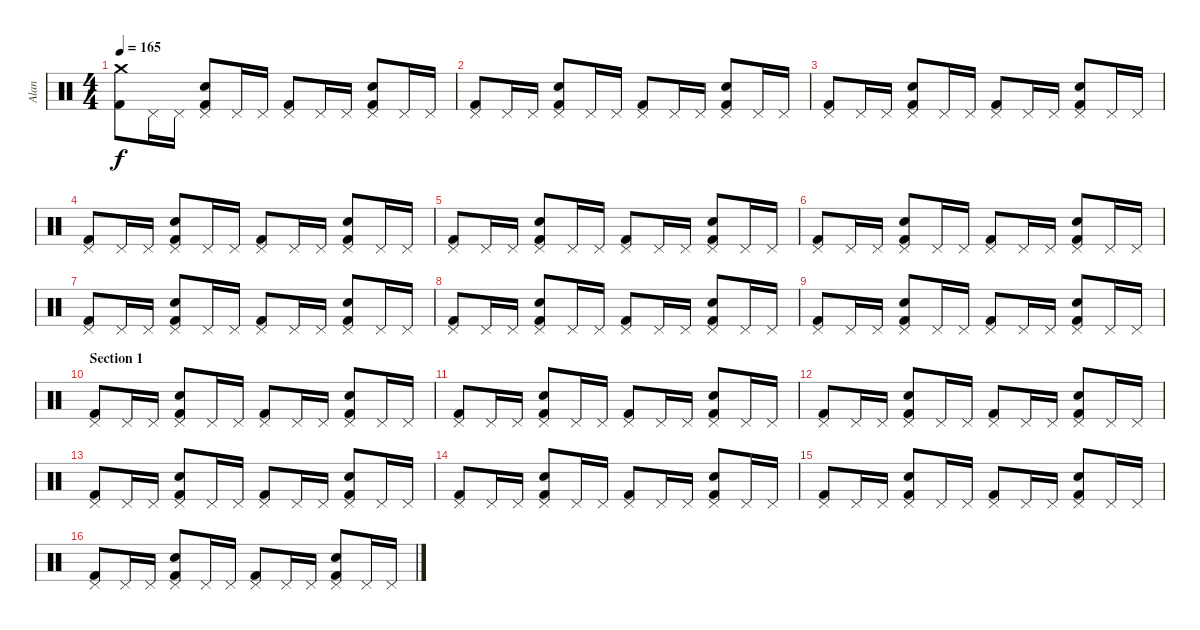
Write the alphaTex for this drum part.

\track ("Alan" "Alan") {instrument percussion}
\staff {score}
\articulation defaults
\ts (4 4)
\tempo 165
\clef neutral
\ks c
("Kick (hit) 2" "Crash medium (hit)").8{dy f} "Pedal Hi-Hat (hit)".16 "Pedal Hi-Hat (hit)".16 ("Pedal Hi-Hat (hit)" "Kick (hit) 2" "Snare (hit) 2").8 "Pedal Hi-Hat (hit)".16 "Pedal Hi-Hat (hit)".16 ("Pedal Hi-Hat (hit)" "Kick (hit) 2").8 "Pedal Hi-Hat (hit)".16 "Pedal Hi-Hat (hit)".16 ("Pedal Hi-Hat (hit)" "Kick (hit) 2" "Snare (hit) 2").8 "Pedal Hi-Hat (hit)".16 "Pedal Hi-Hat (hit)".16 |
("Pedal Hi-Hat (hit)" "Kick (hit) 2").8 "Pedal Hi-Hat (hit)".16 "Pedal Hi-Hat (hit)".16 ("Pedal Hi-Hat (hit)" "Kick (hit) 2" "Snare (hit) 2").8 "Pedal Hi-Hat (hit)".16 "Pedal Hi-Hat (hit)".16 ("Pedal Hi-Hat (hit)" "Kick (hit) 2").8 "Pedal Hi-Hat (hit)".16 "Pedal Hi-Hat (hit)".16 ("Pedal Hi-Hat (hit)" "Kick (hit) 2" "Snare (hit) 2").8 "Pedal Hi-Hat (hit)".16 "Pedal Hi-Hat (hit)".16 |
("Pedal Hi-Hat (hit)" "Kick (hit) 2").8 "Pedal Hi-Hat (hit)".16 "Pedal Hi-Hat (hit)".16 ("Pedal Hi-Hat (hit)" "Kick (hit) 2" "Snare (hit) 2").8 "Pedal Hi-Hat (hit)".16 "Pedal Hi-Hat (hit)".16 ("Pedal Hi-Hat (hit)" "Kick (hit) 2").8 "Pedal Hi-Hat (hit)".16 "Pedal Hi-Hat (hit)".16 ("Pedal Hi-Hat (hit)" "Kick (hit) 2" "Snare (hit) 2").8 "Pedal Hi-Hat (hit)".16 "Pedal Hi-Hat (hit)".16 |
("Kick (hit) 2" "Pedal Hi-Hat (hit)").8 "Pedal Hi-Hat (hit)".16 "Pedal Hi-Hat (hit)".16 ("Pedal Hi-Hat (hit)" "Kick (hit) 2" "Snare (hit) 2").8 "Pedal Hi-Hat (hit)".16 "Pedal Hi-Hat (hit)".16 ("Pedal Hi-Hat (hit)" "Kick (hit) 2").8 "Pedal Hi-Hat (hit)".16 "Pedal Hi-Hat (hit)".16 ("Pedal Hi-Hat (hit)" "Kick (hit) 2" "Snare (hit) 2").8 "Pedal Hi-Hat (hit)".16 "Pedal Hi-Hat (hit)".16 |
("Kick (hit) 2" "Pedal Hi-Hat (hit)").8 "Pedal Hi-Hat (hit)".16 "Pedal Hi-Hat (hit)".16 ("Pedal Hi-Hat (hit)" "Kick (hit) 2" "Snare (hit) 2").8 "Pedal Hi-Hat (hit)".16 "Pedal Hi-Hat (hit)".16 ("Pedal Hi-Hat (hit)" "Kick (hit) 2").8 "Pedal Hi-Hat (hit)".16 "Pedal Hi-Hat (hit)".16 ("Pedal Hi-Hat (hit)" "Kick (hit) 2" "Snare (hit) 2").8 "Pedal Hi-Hat (hit)".16 "Pedal Hi-Hat (hit)".16 |
("Kick (hit) 2" "Pedal Hi-Hat (hit)").8 "Pedal Hi-Hat (hit)".16 "Pedal Hi-Hat (hit)".16 ("Pedal Hi-Hat (hit)" "Kick (hit) 2" "Snare (hit) 2").8 "Pedal Hi-Hat (hit)".16 "Pedal Hi-Hat (hit)".16 ("Pedal Hi-Hat (hit)" "Kick (hit) 2").8 "Pedal Hi-Hat (hit)".16 "Pedal Hi-Hat (hit)".16 ("Pedal Hi-Hat (hit)" "Kick (hit) 2" "Snare (hit) 2").8 "Pedal Hi-Hat (hit)".16 "Pedal Hi-Hat (hit)".16 |
("Kick (hit) 2" "Pedal Hi-Hat (hit)").8 "Pedal Hi-Hat (hit)".16 "Pedal Hi-Hat (hit)".16 ("Pedal Hi-Hat (hit)" "Kick (hit) 2" "Snare (hit) 2").8 "Pedal Hi-Hat (hit)".16 "Pedal Hi-Hat (hit)".16 ("Pedal Hi-Hat (hit)" "Kick (hit) 2").8 "Pedal Hi-Hat (hit)".16 "Pedal Hi-Hat (hit)".16 ("Pedal Hi-Hat (hit)" "Kick (hit) 2" "Snare (hit) 2").8 "Pedal Hi-Hat (hit)".16 "Pedal Hi-Hat (hit)".16 |
("Kick (hit) 2" "Pedal Hi-Hat (hit)").8 "Pedal Hi-Hat (hit)".16 "Pedal Hi-Hat (hit)".16 ("Pedal Hi-Hat (hit)" "Kick (hit) 2" "Snare (hit) 2").8 "Pedal Hi-Hat (hit)".16 "Pedal Hi-Hat (hit)".16 ("Pedal Hi-Hat (hit)" "Kick (hit) 2").8 "Pedal Hi-Hat (hit)".16 "Pedal Hi-Hat (hit)".16 ("Pedal Hi-Hat (hit)" "Kick (hit) 2" "Snare (hit) 2").8 "Pedal Hi-Hat (hit)".16 "Pedal Hi-Hat (hit)".16 |
("Kick (hit) 2" "Pedal Hi-Hat (hit)").8 "Pedal Hi-Hat (hit)".16 "Pedal Hi-Hat (hit)".16 ("Pedal Hi-Hat (hit)" "Kick (hit) 2" "Snare (hit) 2").8 "Pedal Hi-Hat (hit)".16 "Pedal Hi-Hat (hit)".16 ("Pedal Hi-Hat (hit)" "Kick (hit) 2").8 "Pedal Hi-Hat (hit)".16 "Pedal Hi-Hat (hit)".16 ("Pedal Hi-Hat (hit)" "Kick (hit) 2" "Snare (hit) 2").8 "Pedal Hi-Hat (hit)".16 "Pedal Hi-Hat (hit)".16 |
\section ("" "Section 1")
("Kick (hit) 2" "Pedal Hi-Hat (hit)").8 "Pedal Hi-Hat (hit)".16 "Pedal Hi-Hat (hit)".16 ("Pedal Hi-Hat (hit)" "Kick (hit) 2" "Snare (hit) 2").8 "Pedal Hi-Hat (hit)".16 "Pedal Hi-Hat (hit)".16 ("Pedal Hi-Hat (hit)" "Kick (hit) 2").8 "Pedal Hi-Hat (hit)".16 "Pedal Hi-Hat (hit)".16 ("Pedal Hi-Hat (hit)" "Kick (hit) 2" "Snare (hit) 2").8 "Pedal Hi-Hat (hit)".16 "Pedal Hi-Hat (hit)".16 |
("Kick (hit) 2" "Pedal Hi-Hat (hit)").8 "Pedal Hi-Hat (hit)".16 "Pedal Hi-Hat (hit)".16 ("Pedal Hi-Hat (hit)" "Kick (hit) 2" "Snare (hit) 2").8 "Pedal Hi-Hat (hit)".16 "Pedal Hi-Hat (hit)".16 ("Pedal Hi-Hat (hit)" "Kick (hit) 2").8 "Pedal Hi-Hat (hit)".16 "Pedal Hi-Hat (hit)".16 ("Pedal Hi-Hat (hit)" "Kick (hit) 2" "Snare (hit) 2").8 "Pedal Hi-Hat (hit)".16 "Pedal Hi-Hat (hit)".16 |
("Kick (hit) 2" "Pedal Hi-Hat (hit)").8 "Pedal Hi-Hat (hit)".16 "Pedal Hi-Hat (hit)".16 ("Pedal Hi-Hat (hit)" "Kick (hit) 2" "Snare (hit) 2").8 "Pedal Hi-Hat (hit)".16 "Pedal Hi-Hat (hit)".16 ("Pedal Hi-Hat (hit)" "Kick (hit) 2").8 "Pedal Hi-Hat (hit)".16 "Pedal Hi-Hat (hit)".16 ("Pedal Hi-Hat (hit)" "Kick (hit) 2" "Snare (hit) 2").8 "Pedal Hi-Hat (hit)".16 "Pedal Hi-Hat (hit)".16 |
("Kick (hit) 2" "Pedal Hi-Hat (hit)").8 "Pedal Hi-Hat (hit)".16 "Pedal Hi-Hat (hit)".16 ("Pedal Hi-Hat (hit)" "Kick (hit) 2" "Snare (hit) 2").8 "Pedal Hi-Hat (hit)".16 "Pedal Hi-Hat (hit)".16 ("Pedal Hi-Hat (hit)" "Kick (hit) 2").8 "Pedal Hi-Hat (hit)".16 "Pedal Hi-Hat (hit)".16 ("Pedal Hi-Hat (hit)" "Kick (hit) 2" "Snare (hit) 2").8 "Pedal Hi-Hat (hit)".16 "Pedal Hi-Hat (hit)".16 |
("Kick (hit) 2" "Pedal Hi-Hat (hit)").8 "Pedal Hi-Hat (hit)".16 "Pedal Hi-Hat (hit)".16 ("Pedal Hi-Hat (hit)" "Kick (hit) 2" "Snare (hit) 2").8 "Pedal Hi-Hat (hit)".16 "Pedal Hi-Hat (hit)".16 ("Pedal Hi-Hat (hit)" "Kick (hit) 2").8 "Pedal Hi-Hat (hit)".16 "Pedal Hi-Hat (hit)".16 ("Pedal Hi-Hat (hit)" "Kick (hit) 2" "Snare (hit) 2").8 "Pedal Hi-Hat (hit)".16 "Pedal Hi-Hat (hit)".16 |
("Kick (hit) 2" "Pedal Hi-Hat (hit)").8 "Pedal Hi-Hat (hit)".16 "Pedal Hi-Hat (hit)".16 ("Pedal Hi-Hat (hit)" "Kick (hit) 2" "Snare (hit) 2").8 "Pedal Hi-Hat (hit)".16 "Pedal Hi-Hat (hit)".16 ("Pedal Hi-Hat (hit)" "Kick (hit) 2").8 "Pedal Hi-Hat (hit)".16 "Pedal Hi-Hat (hit)".16 ("Pedal Hi-Hat (hit)" "Kick (hit) 2" "Snare (hit) 2").8 "Pedal Hi-Hat (hit)".16 "Pedal Hi-Hat (hit)".16 |
("Kick (hit) 2" "Pedal Hi-Hat (hit)").8 "Pedal Hi-Hat (hit)".16 "Pedal Hi-Hat (hit)".16 ("Pedal Hi-Hat (hit)" "Kick (hit) 2" "Snare (hit) 2").8 "Pedal Hi-Hat (hit)".16 "Pedal Hi-Hat (hit)".16 ("Pedal Hi-Hat (hit)" "Kick (hit) 2").8 "Pedal Hi-Hat (hit)".16 "Pedal Hi-Hat (hit)".16 ("Pedal Hi-Hat (hit)" "Kick (hit) 2" "Snare (hit) 2").8 "Pedal Hi-Hat (hit)".16 "Pedal Hi-Hat (hit)".16
